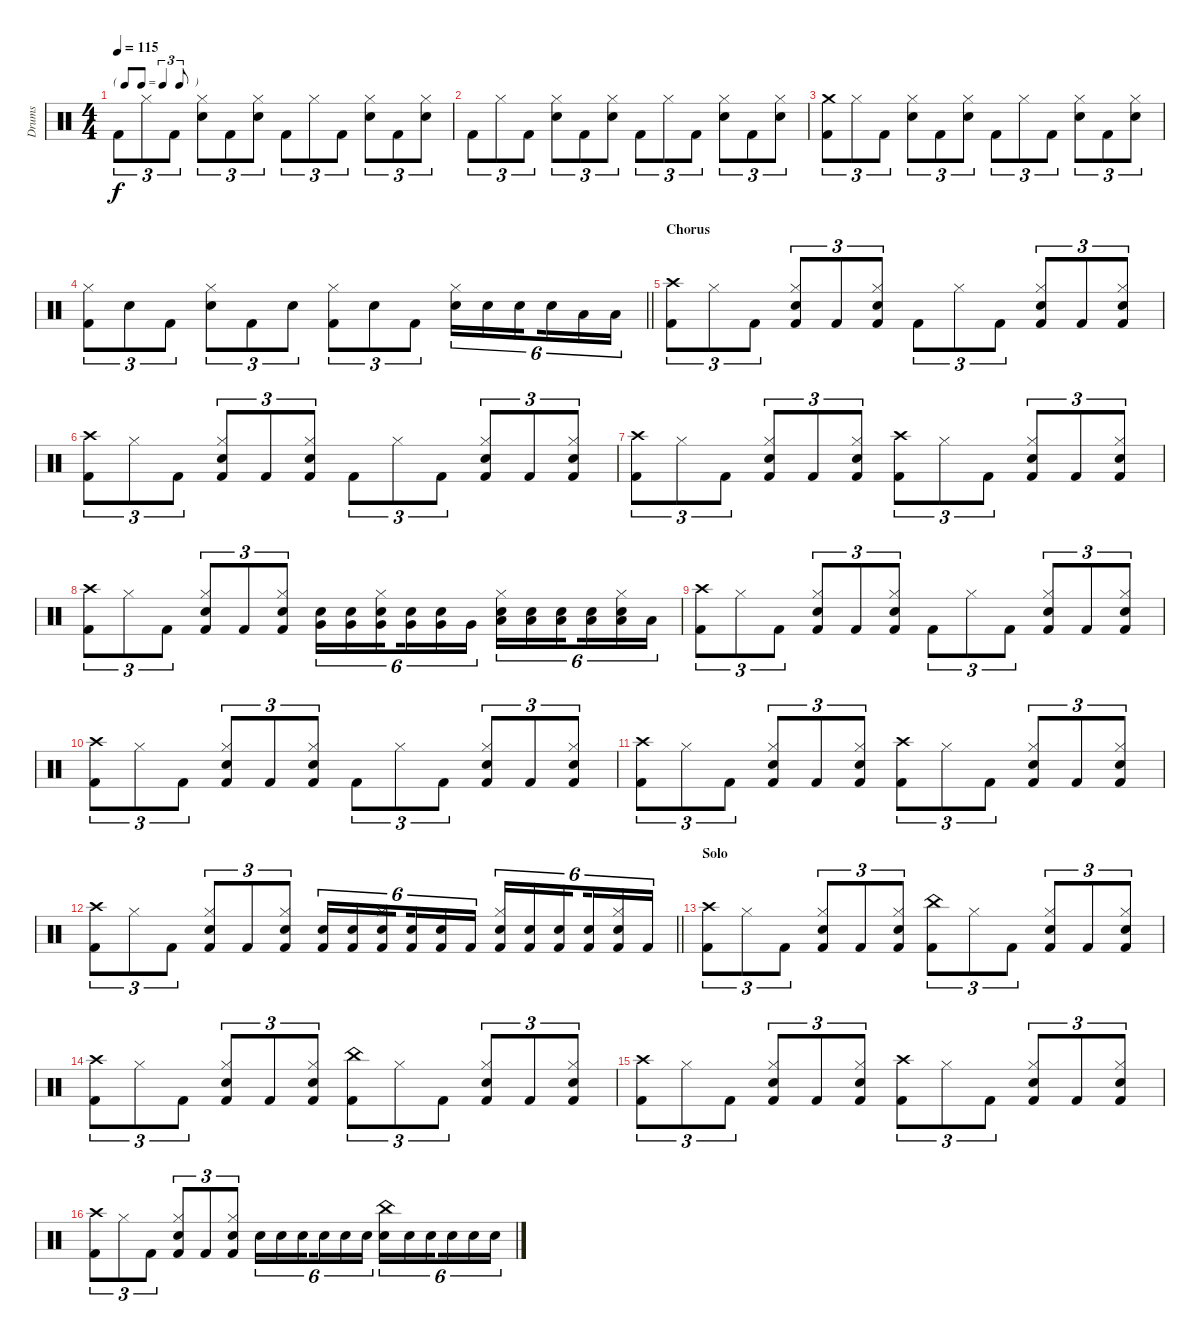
\track ("Drums" "Drums") {instrument percussion}
\staff {score}
\articulation defaults
\ts (4 4)
\tf triplet8th
\tempo 115
\clef neutral
\ks c "Kick (hit) 2".8{tu (3 2) dy f} "Hi-Hat (closed)".8{tu (3 2)} "Kick (hit) 2".8{tu (3 2)}
("Hi-Hat (closed)" "Snare (hit) 2").8{tu (3 2)} "Kick (hit) 2".8{tu (3 2)} ("Hi-Hat (closed)" "Snare (hit) 2").8{tu (3 2)} "Kick (hit) 2".8{tu (3 2)} "Hi-Hat (closed)".8{tu (3 2)} "Kick (hit) 2".8{tu (3 2)} ("Hi-Hat (closed)" "Snare (hit) 2").8{tu (3 2)} "Kick (hit) 2".8{tu (3 2)} ("Hi-Hat (closed)" "Snare (hit) 2").8{tu (3 2)} |
"Kick (hit) 2".8{tu (3 2)} "Hi-Hat (closed)".8{tu (3 2)} "Kick (hit) 2".8{tu (3 2)} ("Hi-Hat (closed)" "Snare (hit) 2").8{tu (3 2)} "Kick (hit) 2".8{tu (3 2)} ("Hi-Hat (closed)" "Snare (hit) 2").8{tu (3 2)} "Kick (hit) 2".8{tu (3 2)} "Hi-Hat (closed)".8{tu (3 2)} "Kick (hit) 2".8{tu (3 2)} ("Hi-Hat (closed)" "Snare (hit) 2").8{tu (3 2)} "Kick (hit) 2".8{tu (3 2)} ("Hi-Hat (closed)" "Snare (hit) 2").8{tu (3 2)} |
("Crash medium (hit)" "Kick (hit) 2").8{tu (3 2)} "Hi-Hat (closed)".8{tu (3 2)} "Kick (hit) 2".8{tu (3 2)} ("Hi-Hat (closed)" "Snare (hit) 2").8{tu (3 2)} "Kick (hit) 2".8{tu (3 2)} ("Hi-Hat (closed)" "Snare (hit) 2").8{tu (3 2)} "Kick (hit) 2".8{tu (3 2)} "Hi-Hat (closed)".8{tu (3 2)} "Kick (hit) 2".8{tu (3 2)} ("Hi-Hat (closed)" "Snare (hit) 2").8{tu (3 2)} "Kick (hit) 2".8{tu (3 2)} ("Hi-Hat (closed)" "Snare (hit) 2").8{tu (3 2)} |
\barLineRight lightlight
("Hi-Hat (closed)" "Kick (hit) 2").8{tu (3 2)} "Snare (hit) 2".8{tu (3 2)} "Kick (hit) 2".8{tu (3 2)} ("Hi-Hat (closed)" "Snare (hit) 2").8{tu (3 2)} "Kick (hit) 2".8{tu (3 2)} "Snare (hit) 2".8{tu (3 2)} ("Hi-Hat (closed)" "Kick (hit) 2").8{tu (3 2)} "Snare (hit) 2".8{tu (3 2)} "Kick (hit) 2".8{tu (3 2)} ("Hi-Hat (closed)" "Snare (hit) 2").16{tu (6 4)} "Snare (hit) 2".16{tu (6 4)} "Snare (hit) 2".16{tu (6 4) beam splitsecondary} "Snare (hit) 2".16{tu (6 4)} "Low Tom (hit)".16{tu (6 4)} "Low Tom (hit)".16{tu (6 4)} |
\section ("" "Chorus")
("Crash high (hit)" "Kick (hit) 2").8{tu (3 2)} "Hi-Hat (closed)".8{tu (3 2)} "Kick (hit) 2".8{tu (3 2)} ("Hi-Hat (closed)" "Snare (hit) 2" "Kick (hit) 2").8{tu (3 2)} "Kick (hit) 2".8{tu (3 2)} ("Hi-Hat (closed)" "Snare (hit) 2" "Kick (hit) 2").8{tu (3 2)} "Kick (hit) 2".8{tu (3 2)} "Hi-Hat (closed)".8{tu (3 2)} "Kick (hit) 2".8{tu (3 2)} ("Hi-Hat (closed)" "Snare (hit) 2" "Kick (hit) 2").8{tu (3 2)} "Kick (hit) 2".8{tu (3 2)} ("Hi-Hat (closed)" "Snare (hit) 2" "Kick (hit) 2").8{tu (3 2)} |
("Crash high (hit)" "Kick (hit) 2").8{tu (3 2)} "Hi-Hat (closed)".8{tu (3 2)} "Kick (hit) 2".8{tu (3 2)} ("Hi-Hat (closed)" "Snare (hit) 2" "Kick (hit) 2").8{tu (3 2)} "Kick (hit) 2".8{tu (3 2)} ("Hi-Hat (closed)" "Snare (hit) 2" "Kick (hit) 2").8{tu (3 2)} "Kick (hit) 2".8{tu (3 2)} "Hi-Hat (closed)".8{tu (3 2)} "Kick (hit) 2".8{tu (3 2)} ("Hi-Hat (closed)" "Snare (hit) 2" "Kick (hit) 2").8{tu (3 2)} "Kick (hit) 2".8{tu (3 2)} ("Hi-Hat (closed)" "Snare (hit) 2" "Kick (hit) 2").8{tu (3 2)} |
("Crash high (hit)" "Kick (hit) 2").8{tu (3 2)} "Hi-Hat (closed)".8{tu (3 2)} "Kick (hit) 2".8{tu (3 2)} ("Hi-Hat (closed)" "Snare (hit) 2" "Kick (hit) 2").8{tu (3 2)} "Kick (hit) 2".8{tu (3 2)} ("Hi-Hat (closed)" "Snare (hit) 2" "Kick (hit) 2").8{tu (3 2)} ("Crash high (hit)" "Kick (hit) 2").8{tu (3 2)} "Hi-Hat (closed)".8{tu (3 2)} "Kick (hit) 2".8{tu (3 2)} ("Hi-Hat (closed)" "Snare (hit) 2" "Kick (hit) 2").8{tu (3 2)} "Kick (hit) 2".8{tu (3 2)} ("Hi-Hat (closed)" "Snare (hit) 2" "Kick (hit) 2").8{tu (3 2)} |
("Crash high (hit)" "Kick (hit) 2").8{tu (3 2)} "Hi-Hat (closed)".8{tu (3 2)} "Kick (hit) 2".8{tu (3 2)} ("Hi-Hat (closed)" "Snare (hit) 2" "Kick (hit) 2").8{tu (3 2)} "Kick (hit) 2".8{tu (3 2)} ("Hi-Hat (closed)" "Snare (hit) 2" "Kick (hit) 2").8{tu (3 2)} ("Very Low Tom (hit)" "Electric Snare (hit)").16{tu (6 4)} ("Very Low Tom (hit)" "Electric Snare (hit)").16{tu (6 4)} ("Hi-Hat (closed)" "Very Low Tom (hit)" "Electric Snare (hit)").16{tu (6 4) beam splitsecondary} ("Very Low Tom (hit)" "Electric Snare (hit)").16{tu (6 4)} ("Very Low Tom (hit)" "Electric Snare (hit)").16{tu (6 4)} "Very Low Tom (hit)".16{tu (6 4)} ("Hi-Hat (closed)" "Low Floor Tom (hit)" "Electric Snare (hit)").16{tu (6 4)} ("Low Floor Tom (hit)" "Electric Snare (hit)").16{tu (6 4)} ("Low Floor Tom (hit)" "Electric Snare (hit)").16{tu (6 4) beam splitsecondary} ("Low Floor Tom (hit)" "Electric Snare (hit)").16{tu (6 4)} ("Hi-Hat (closed)" "Low Floor Tom (hit)" "Electric Snare (hit)").16{tu (6 4)} "Low Floor Tom (hit)".16{tu (6 4)} |
("Crash high (hit)" "Kick (hit) 2").8{tu (3 2)} "Hi-Hat (closed)".8{tu (3 2)} "Kick (hit) 2".8{tu (3 2)} ("Hi-Hat (closed)" "Snare (hit) 2" "Kick (hit) 2").8{tu (3 2)} "Kick (hit) 2".8{tu (3 2)} ("Hi-Hat (closed)" "Snare (hit) 2" "Kick (hit) 2").8{tu (3 2)} "Kick (hit) 2".8{tu (3 2)} "Hi-Hat (closed)".8{tu (3 2)} "Kick (hit) 2".8{tu (3 2)} ("Hi-Hat (closed)" "Snare (hit) 2" "Kick (hit) 2").8{tu (3 2)} "Kick (hit) 2".8{tu (3 2)} ("Hi-Hat (closed)" "Snare (hit) 2" "Kick (hit) 2").8{tu (3 2)} |
("Crash high (hit)" "Kick (hit) 2").8{tu (3 2)} "Hi-Hat (closed)".8{tu (3 2)} "Kick (hit) 2".8{tu (3 2)} ("Hi-Hat (closed)" "Snare (hit) 2" "Kick (hit) 2").8{tu (3 2)} "Kick (hit) 2".8{tu (3 2)} ("Hi-Hat (closed)" "Snare (hit) 2" "Kick (hit) 2").8{tu (3 2)} "Kick (hit) 2".8{tu (3 2)} "Hi-Hat (closed)".8{tu (3 2)} "Kick (hit) 2".8{tu (3 2)} ("Hi-Hat (closed)" "Snare (hit) 2" "Kick (hit) 2").8{tu (3 2)} "Kick (hit) 2".8{tu (3 2)} ("Hi-Hat (closed)" "Snare (hit) 2" "Kick (hit) 2").8{tu (3 2)} |
("Crash high (hit)" "Kick (hit) 2").8{tu (3 2)} "Hi-Hat (closed)".8{tu (3 2)} "Kick (hit) 2".8{tu (3 2)} ("Hi-Hat (closed)" "Snare (hit) 2" "Kick (hit) 2").8{tu (3 2)} "Kick (hit) 2".8{tu (3 2)} ("Hi-Hat (closed)" "Snare (hit) 2" "Kick (hit) 2").8{tu (3 2)} ("Crash high (hit)" "Kick (hit) 2").8{tu (3 2)} "Hi-Hat (closed)".8{tu (3 2)} "Kick (hit) 2".8{tu (3 2)} ("Hi-Hat (closed)" "Snare (hit) 2" "Kick (hit) 2").8{tu (3 2)} "Kick (hit) 2".8{tu (3 2)} ("Hi-Hat (closed)" "Snare (hit) 2" "Kick (hit) 2").8{tu (3 2)} |
\barLineRight lightlight
("Crash high (hit)" "Kick (hit) 2").8{tu (3 2)} "Hi-Hat (closed)".8{tu (3 2)} "Kick (hit) 2".8{tu (3 2)} ("Hi-Hat (closed)" "Snare (hit) 2" "Kick (hit) 2").8{tu (3 2)} "Kick (hit) 2".8{tu (3 2)} ("Hi-Hat (closed)" "Snare (hit) 2" "Kick (hit) 2").8{tu (3 2)} ("Electric Snare (hit)" "Kick (hit) 2").16{tu (6 4)} ("Electric Snare (hit)" "Kick (hit) 2").16{tu (6 4)} ("Hi-Hat (closed)" "Electric Snare (hit)" "Kick (hit) 2").16{tu (6 4) beam splitsecondary} ("Electric Snare (hit)" "Kick (hit) 2").16{tu (6 4)} ("Electric Snare (hit)" "Kick (hit) 2").16{tu (6 4)} "Kick (hit) 2".16{tu (6 4)} ("Hi-Hat (closed)" "Electric Snare (hit)" "Kick (hit) 2").16{tu (6 4)} ("Electric Snare (hit)" "Kick (hit) 2").16{tu (6 4)} ("Electric Snare (hit)" "Kick (hit) 2").16{tu (6 4) beam splitsecondary} ("Electric Snare (hit)" "Kick (hit) 2").16{tu (6 4)} ("Hi-Hat (closed)" "Electric Snare (hit)" "Kick (hit) 2").16{tu (6 4)} "Kick (hit) 2".16{tu (6 4)} |
\section ("" "Solo")
("Crash high (hit)" "Kick (hit) 2").8{tu (3 2)} "Hi-Hat (closed)".8{tu (3 2)} "Kick (hit) 2".8{tu (3 2)} ("Hi-Hat (closed)" "Snare (hit) 2" "Kick (hit) 2").8{tu (3 2)} "Kick (hit) 2".8{tu (3 2)} ("Hi-Hat (closed)" "Snare (hit) 2" "Kick (hit) 2").8{tu (3 2)} ("China (hit)" "Kick (hit) 2").8{tu (3 2)} "Hi-Hat (closed)".8{tu (3 2)} "Kick (hit) 2".8{tu (3 2)} ("Hi-Hat (closed)" "Snare (hit) 2" "Kick (hit) 2").8{tu (3 2)} "Kick (hit) 2".8{tu (3 2)} ("Hi-Hat (closed)" "Snare (hit) 2" "Kick (hit) 2").8{tu (3 2)} |
("Crash high (hit)" "Kick (hit) 2").8{tu (3 2)} "Hi-Hat (closed)".8{tu (3 2)} "Kick (hit) 2".8{tu (3 2)} ("Hi-Hat (closed)" "Snare (hit) 2" "Kick (hit) 2").8{tu (3 2)} "Kick (hit) 2".8{tu (3 2)} ("Hi-Hat (closed)" "Snare (hit) 2" "Kick (hit) 2").8{tu (3 2)} ("China (hit)" "Kick (hit) 2").8{tu (3 2)} "Hi-Hat (closed)".8{tu (3 2)} "Kick (hit) 2".8{tu (3 2)} ("Hi-Hat (closed)" "Snare (hit) 2" "Kick (hit) 2").8{tu (3 2)} "Kick (hit) 2".8{tu (3 2)} ("Hi-Hat (closed)" "Snare (hit) 2" "Kick (hit) 2").8{tu (3 2)} |
("Crash high (hit)" "Kick (hit) 2").8{tu (3 2)} "Hi-Hat (closed)".8{tu (3 2)} "Kick (hit) 2".8{tu (3 2)} ("Hi-Hat (closed)" "Snare (hit) 2" "Kick (hit) 2").8{tu (3 2)} "Kick (hit) 2".8{tu (3 2)} ("Hi-Hat (closed)" "Snare (hit) 2" "Kick (hit) 2").8{tu (3 2)} ("Crash high (hit)" "Kick (hit) 2").8{tu (3 2)} "Hi-Hat (closed)".8{tu (3 2)} "Kick (hit) 2".8{tu (3 2)} ("Hi-Hat (closed)" "Snare (hit) 2" "Kick (hit) 2").8{tu (3 2)} "Kick (hit) 2".8{tu (3 2)} ("Hi-Hat (closed)" "Snare (hit) 2" "Kick (hit) 2").8{tu (3 2)} |
("Crash high (hit)" "Kick (hit) 2").8{tu (3 2)} "Hi-Hat (closed)".8{tu (3 2)} "Kick (hit) 2".8{tu (3 2)} ("Hi-Hat (closed)" "Snare (hit) 2" "Kick (hit) 2").8{tu (3 2)} "Kick (hit) 2".8{tu (3 2)} ("Hi-Hat (closed)" "Snare (hit) 2" "Kick (hit) 2").8{tu (3 2)} "Snare (hit) 2".16{tu (6 4)} "Snare (hit) 2".16{tu (6 4)} "Snare (hit) 2".16{tu (6 4) beam splitsecondary} "Snare (hit) 2".16{tu (6 4)} "Snare (hit) 2".16{tu (6 4)} "Snare (hit) 2".16{tu (6 4)} ("China (hit)" "Snare (hit) 2").16{tu (6 4)} "Snare (hit) 2".16{tu (6 4)} "Snare (hit) 2".16{tu (6 4) beam splitsecondary} "Snare (hit) 2".16{tu (6 4)} "Snare (hit) 2".16{tu (6 4)} "Snare (hit) 2".16{tu (6 4)}
